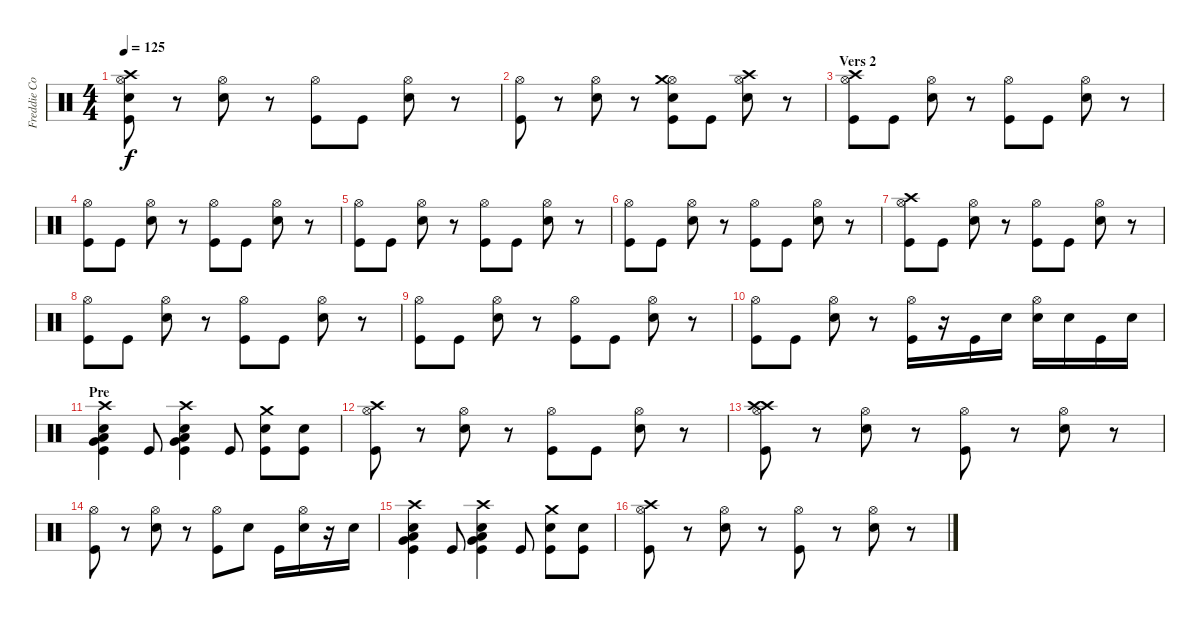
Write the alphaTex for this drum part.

\track ("Freddie Coury - Drums" "Freddie Co") {instrument percussion}
\staff {score}
\articulation defaults
\ts (4 4)
\tempo 125
\clef neutral
\ks c
("Hi-Hat (open)" "Crash high (hit)" "Snare (hit) 2" "Kick (hit)").8{dy f} r.8 ("Hi-Hat (open)" "Snare (hit) 2").8 r.8 ("Hi-Hat (open)" "Kick (hit)").8 "Kick (hit)".8 ("Hi-Hat (open)" "Snare (hit) 2").8 r.8 |
("Hi-Hat (open)" "Kick (hit)").8 r.8 ("Hi-Hat (open)" "Snare (hit) 2").8 r.8 ("Hi-Hat (open)" "Crash medium (hit)" "Snare (hit) 2" "Kick (hit)").8 "Kick (hit)".8 ("Hi-Hat (open)" "Crash high (hit)" "Snare (hit) 2").8 r.8 |
\section ("" "Vers 2")
("Hi-Hat (open)" "Crash high (hit)" "Kick (hit)").8 "Kick (hit)".8 ("Hi-Hat (open)" "Snare (hit) 2").8 r.8 ("Hi-Hat (open)" "Kick (hit)").8 "Kick (hit)".8 ("Hi-Hat (open)" "Snare (hit) 2").8 r.8 |
("Hi-Hat (open)" "Kick (hit)").8 "Kick (hit)".8 ("Hi-Hat (open)" "Snare (hit) 2").8 r.8 ("Hi-Hat (open)" "Kick (hit)").8 "Kick (hit)".8 ("Hi-Hat (open)" "Snare (hit) 2").8 r.8 |
("Hi-Hat (open)" "Kick (hit)").8 "Kick (hit)".8 ("Hi-Hat (open)" "Snare (hit) 2").8 r.8 ("Hi-Hat (open)" "Kick (hit)").8 "Kick (hit)".8 ("Hi-Hat (open)" "Snare (hit) 2").8 r.8 |
("Hi-Hat (open)" "Kick (hit)").8 "Kick (hit)".8 ("Hi-Hat (open)" "Snare (hit) 2").8 r.8 ("Hi-Hat (open)" "Kick (hit)").8 "Kick (hit)".8 ("Hi-Hat (open)" "Snare (hit) 2").8 r.8 |
("Hi-Hat (open)" "Crash high (hit)" "Kick (hit)").8 "Kick (hit)".8 ("Hi-Hat (open)" "Snare (hit) 2").8 r.8 ("Hi-Hat (open)" "Kick (hit)").8 "Kick (hit)".8 ("Hi-Hat (open)" "Snare (hit) 2").8 r.8 |
("Hi-Hat (open)" "Kick (hit)").8 "Kick (hit)".8 ("Hi-Hat (open)" "Snare (hit) 2").8 r.8 ("Hi-Hat (open)" "Kick (hit)").8 "Kick (hit)".8 ("Hi-Hat (open)" "Snare (hit) 2").8 r.8 |
("Hi-Hat (open)" "Kick (hit)").8 "Kick (hit)".8 ("Hi-Hat (open)" "Snare (hit) 2").8 r.8 ("Hi-Hat (open)" "Kick (hit)").8 "Kick (hit)".8 ("Hi-Hat (open)" "Snare (hit) 2").8 r.8 |
("Hi-Hat (open)" "Kick (hit)").8 "Kick (hit)".8 ("Hi-Hat (open)" "Snare (hit) 2").8 r.8 ("Hi-Hat (open)" "Kick (hit)").16 r.16 "Kick (hit)".16 "Snare (hit) 2".16 ("Hi-Hat (open)" "Snare (hit) 2").16 "Snare (hit) 2".16 "Kick (hit)".16 "Snare (hit) 2".16 |
\section ("" "Pre")
("Crash high (hit)" "Snare (hit) 2" "Kick (hit)" "Low Floor Tom (hit)" "Very Low Tom (hit)").4 "Kick (hit)".8 ("Crash high (hit)" "Snare (hit) 2" "Kick (hit)" "Low Floor Tom (hit)" "Very Low Tom (hit)").4 "Kick (hit)".8 ("Snare (hit) 2" "Crash medium (hit)" "Kick (hit)").8 ("Snare (hit) 2" "Kick (hit)").8 |
("Hi-Hat (open)" "Crash high (hit)" "Kick (hit)").8 r.8 ("Hi-Hat (open)" "Snare (hit) 2").8 r.8 ("Hi-Hat (open)" "Kick (hit)").8 "Kick (hit)".8 ("Hi-Hat (open)" "Snare (hit) 2").8 r.8 |
("Hi-Hat (open)" "Crash high (hit)" "Crash high (hit)" "Kick (hit)").8 r.8 ("Hi-Hat (open)" "Snare (hit) 2").8 r.8 ("Hi-Hat (open)" "Kick (hit)").8 r.8 ("Hi-Hat (open)" "Snare (hit) 2").8 r.8 |
("Hi-Hat (open)" "Kick (hit)").8 r.8 ("Hi-Hat (open)" "Snare (hit) 2").8 r.8 ("Hi-Hat (open)" "Kick (hit)").8 "Snare (hit) 2".8 "Kick (hit)".16 ("Hi-Hat (open)" "Snare (hit) 2").16 r.16 "Snare (hit) 2".16 |
("Crash high (hit)" "Snare (hit) 2" "Kick (hit)" "Low Floor Tom (hit)" "Very Low Tom (hit)").4 "Kick (hit)".8 ("Crash high (hit)" "Snare (hit) 2" "Kick (hit)" "Low Floor Tom (hit)" "Very Low Tom (hit)").4 "Kick (hit)".8 ("Snare (hit) 2" "Crash medium (hit)" "Kick (hit)").8 ("Snare (hit) 2" "Kick (hit)").8 |
("Hi-Hat (open)" "Crash high (hit)" "Kick (hit)").8 r.8 ("Hi-Hat (open)" "Snare (hit) 2").8 r.8 ("Hi-Hat (open)" "Kick (hit)").8 r.8 ("Hi-Hat (open)" "Snare (hit) 2").8 r.8
